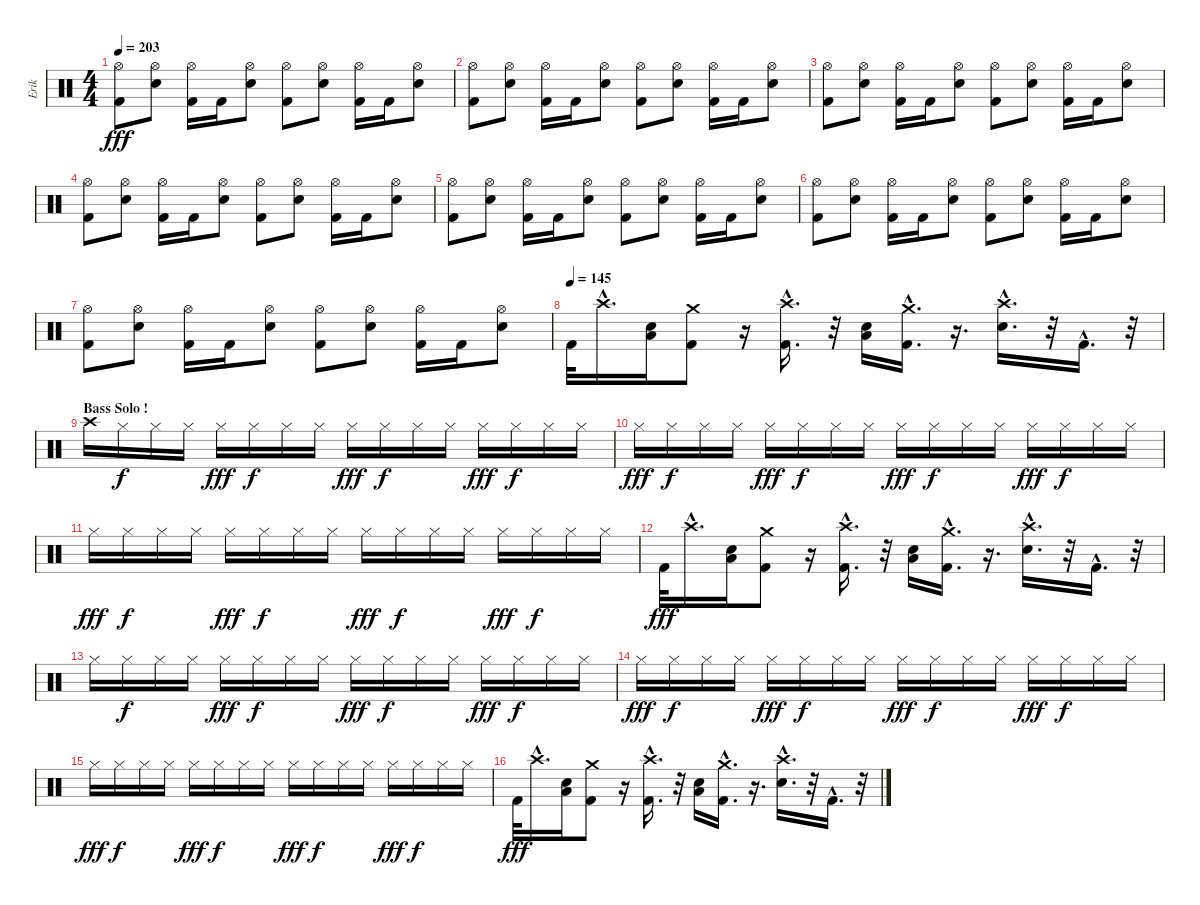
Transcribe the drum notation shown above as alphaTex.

\track ("Erik" "Erik") {instrument percussion}
\staff {score}
\articulation defaults
\ts (4 4)
\tempo 203
\clef neutral
\ks c
("Kick (hit) 2" "Hi-Hat (open)").8{dy fff} ("Electric Snare (hit)" "Hi-Hat (open)").8 ("Kick (hit) 2" "Hi-Hat (open)").16 "Kick (hit) 2".16 ("Electric Snare (hit)" "Hi-Hat (open)").8 ("Kick (hit) 2" "Hi-Hat (open)").8 ("Electric Snare (hit)" "Hi-Hat (open)").8 ("Kick (hit) 2" "Hi-Hat (open)").16 "Kick (hit) 2".16 ("Electric Snare (hit)" "Hi-Hat (open)").8 |
("Kick (hit) 2" "Hi-Hat (open)").8 ("Electric Snare (hit)" "Hi-Hat (open)").8 ("Kick (hit) 2" "Hi-Hat (open)").16 "Kick (hit) 2".16 ("Electric Snare (hit)" "Hi-Hat (open)").8 ("Kick (hit) 2" "Hi-Hat (open)").8 ("Electric Snare (hit)" "Hi-Hat (open)").8 ("Kick (hit) 2" "Hi-Hat (open)").16 "Kick (hit) 2".16 ("Electric Snare (hit)" "Hi-Hat (open)").8 |
("Kick (hit) 2" "Hi-Hat (open)").8 ("Electric Snare (hit)" "Hi-Hat (open)").8 ("Kick (hit) 2" "Hi-Hat (open)").16 "Kick (hit) 2".16 ("Electric Snare (hit)" "Hi-Hat (open)").8 ("Kick (hit) 2" "Hi-Hat (open)").8 ("Electric Snare (hit)" "Hi-Hat (open)").8 ("Kick (hit) 2" "Hi-Hat (open)").16 "Kick (hit) 2".16 ("Electric Snare (hit)" "Hi-Hat (open)").8 |
("Kick (hit) 2" "Hi-Hat (open)").8 ("Electric Snare (hit)" "Hi-Hat (open)").8 ("Kick (hit) 2" "Hi-Hat (open)").16 "Kick (hit) 2".16 ("Electric Snare (hit)" "Hi-Hat (open)").8 ("Kick (hit) 2" "Hi-Hat (open)").8 ("Electric Snare (hit)" "Hi-Hat (open)").8 ("Kick (hit) 2" "Hi-Hat (open)").16 "Kick (hit) 2".16 ("Electric Snare (hit)" "Hi-Hat (open)").8 |
("Kick (hit) 2" "Hi-Hat (open)").8 ("Electric Snare (hit)" "Hi-Hat (open)").8 ("Kick (hit) 2" "Hi-Hat (open)").16 "Kick (hit) 2".16 ("Electric Snare (hit)" "Hi-Hat (open)").8 ("Kick (hit) 2" "Hi-Hat (open)").8 ("Electric Snare (hit)" "Hi-Hat (open)").8 ("Kick (hit) 2" "Hi-Hat (open)").16 "Kick (hit) 2".16 ("Electric Snare (hit)" "Hi-Hat (open)").8 |
("Kick (hit) 2" "Hi-Hat (open)").8 ("Electric Snare (hit)" "Hi-Hat (open)").8 ("Kick (hit) 2" "Hi-Hat (open)").16 "Kick (hit) 2".16 ("Electric Snare (hit)" "Hi-Hat (open)").8 ("Kick (hit) 2" "Hi-Hat (open)").8 ("Electric Snare (hit)" "Hi-Hat (open)").8 ("Kick (hit) 2" "Hi-Hat (open)").16 "Kick (hit) 2".16 ("Electric Snare (hit)" "Hi-Hat (open)").8 |
("Kick (hit) 2" "Hi-Hat (open)").8 ("Electric Snare (hit)" "Hi-Hat (open)").8 ("Kick (hit) 2" "Hi-Hat (open)").16 "Kick (hit) 2".16 ("Electric Snare (hit)" "Hi-Hat (open)").8 ("Kick (hit) 2" "Hi-Hat (open)").8 ("Electric Snare (hit)" "Hi-Hat (open)").8 ("Kick (hit) 2" "Hi-Hat (open)").16 "Kick (hit) 2".16 ("Electric Snare (hit)" "Hi-Hat (open)").8 |
\tempo (145)
"Kick (hit) 2".32 "Crash high (hit)"{hac}.16{d} ("Low Tom (hit)" "Electric Snare (hit)").16 ("Kick (hit) 2" "Crash medium (hit)").8 r.16 ("Kick (hit) 2"{hac} "Crash high (hit)"{hac}).16{d} r.32 ("Low Tom (hit)" "Electric Snare (hit)").16 ("Crash medium (hit)"{hac} "Kick (hit) 2"{hac}).16{d} r.16{d} ("Electric Snare (hit)"{hac} "Crash high (hit)"{hac}).16{d} r.32 "Kick (hit) 2"{hac}.16{d} r.32 |
\section ("" "Bass Solo !")
"Crash high (hit)".16 "Hi-Hat (closed)".16{dy f} "Hi-Hat (closed)".16 "Hi-Hat (closed)".16 "Hi-Hat (closed)".16{dy fff} "Hi-Hat (closed)".16{dy f} "Hi-Hat (closed)".16 "Hi-Hat (closed)".16 "Hi-Hat (closed)".16{dy fff} "Hi-Hat (closed)".16{dy f} "Hi-Hat (closed)".16 "Hi-Hat (closed)".16 "Hi-Hat (closed)".16{dy fff} "Hi-Hat (closed)".16{dy f} "Hi-Hat (closed)".16 "Hi-Hat (closed)".16 |
"Hi-Hat (closed)".16{dy fff} "Hi-Hat (closed)".16{dy f} "Hi-Hat (closed)".16 "Hi-Hat (closed)".16 "Hi-Hat (closed)".16{dy fff} "Hi-Hat (closed)".16{dy f} "Hi-Hat (closed)".16 "Hi-Hat (closed)".16 "Hi-Hat (closed)".16{dy fff} "Hi-Hat (closed)".16{dy f} "Hi-Hat (closed)".16 "Hi-Hat (closed)".16 "Hi-Hat (closed)".16{dy fff} "Hi-Hat (closed)".16{dy f} "Hi-Hat (closed)".16 "Hi-Hat (closed)".16 |
"Hi-Hat (closed)".16{dy fff} "Hi-Hat (closed)".16{dy f} "Hi-Hat (closed)".16 "Hi-Hat (closed)".16 "Hi-Hat (closed)".16{dy fff} "Hi-Hat (closed)".16{dy f} "Hi-Hat (closed)".16 "Hi-Hat (closed)".16 "Hi-Hat (closed)".16{dy fff} "Hi-Hat (closed)".16{dy f} "Hi-Hat (closed)".16 "Hi-Hat (closed)".16 "Hi-Hat (closed)".16{dy fff} "Hi-Hat (closed)".16{dy f} "Hi-Hat (closed)".16 "Hi-Hat (closed)".16 |
"Kick (hit) 2".32{dy fff} "Crash high (hit)"{hac}.16{d} ("Low Tom (hit)" "Electric Snare (hit)").16 ("Kick (hit) 2" "Crash medium (hit)").8 r.16 ("Kick (hit) 2"{hac} "Crash high (hit)"{hac}).16{d} r.32 ("Low Tom (hit)" "Electric Snare (hit)").16 ("Crash medium (hit)"{hac} "Kick (hit) 2"{hac}).16{d} r.16{d} ("Electric Snare (hit)"{hac} "Crash high (hit)"{hac}).16{d} r.32 "Kick (hit) 2"{hac}.16{d} r.32 |
"Hi-Hat (closed)".16 "Hi-Hat (closed)".16{dy f} "Hi-Hat (closed)".16 "Hi-Hat (closed)".16 "Hi-Hat (closed)".16{dy fff} "Hi-Hat (closed)".16{dy f} "Hi-Hat (closed)".16 "Hi-Hat (closed)".16 "Hi-Hat (closed)".16{dy fff} "Hi-Hat (closed)".16{dy f} "Hi-Hat (closed)".16 "Hi-Hat (closed)".16 "Hi-Hat (closed)".16{dy fff} "Hi-Hat (closed)".16{dy f} "Hi-Hat (closed)".16 "Hi-Hat (closed)".16 |
"Hi-Hat (closed)".16{dy fff} "Hi-Hat (closed)".16{dy f} "Hi-Hat (closed)".16 "Hi-Hat (closed)".16 "Hi-Hat (closed)".16{dy fff} "Hi-Hat (closed)".16{dy f} "Hi-Hat (closed)".16 "Hi-Hat (closed)".16 "Hi-Hat (closed)".16{dy fff} "Hi-Hat (closed)".16{dy f} "Hi-Hat (closed)".16 "Hi-Hat (closed)".16 "Hi-Hat (closed)".16{dy fff} "Hi-Hat (closed)".16{dy f} "Hi-Hat (closed)".16 "Hi-Hat (closed)".16 |
"Hi-Hat (closed)".16{dy fff} "Hi-Hat (closed)".16{dy f} "Hi-Hat (closed)".16 "Hi-Hat (closed)".16 "Hi-Hat (closed)".16{dy fff} "Hi-Hat (closed)".16{dy f} "Hi-Hat (closed)".16 "Hi-Hat (closed)".16 "Hi-Hat (closed)".16{dy fff} "Hi-Hat (closed)".16{dy f} "Hi-Hat (closed)".16 "Hi-Hat (closed)".16 "Hi-Hat (closed)".16{dy fff} "Hi-Hat (closed)".16{dy f} "Hi-Hat (closed)".16 "Hi-Hat (closed)".16 |
"Kick (hit) 2".32{dy fff} "Crash high (hit)"{hac}.16{d} ("Low Tom (hit)" "Electric Snare (hit)").16 ("Kick (hit) 2" "Crash medium (hit)").8 r.16 ("Kick (hit) 2"{hac} "Crash high (hit)"{hac}).16{d} r.32 ("Low Tom (hit)" "Electric Snare (hit)").16 ("Crash medium (hit)"{hac} "Kick (hit) 2"{hac}).16{d} r.16{d} ("Electric Snare (hit)"{hac} "Crash high (hit)"{hac}).16{d} r.32 "Kick (hit) 2"{hac}.16{d} r.32
